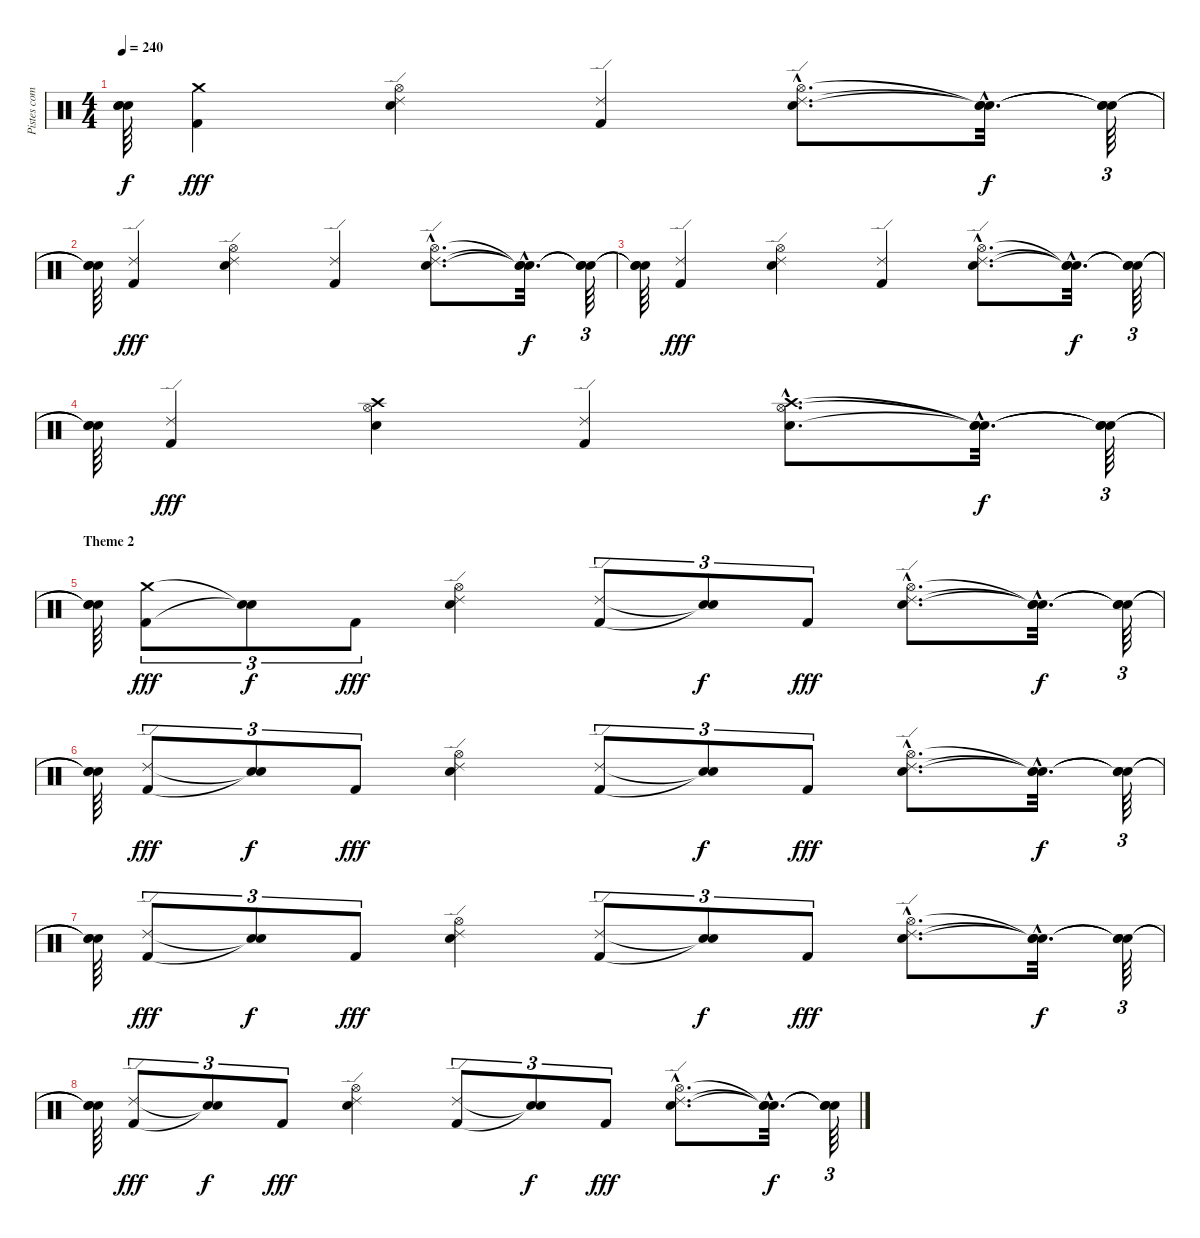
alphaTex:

\track ("Pistes combinées" "Pistes com") {instrument percussion}
\staff {score}
\articulation defaults
\ts (4 4)
\tempo 240
\clef neutral
\ks c
("Snare (hit)"{t} "Snare (hit)"{t} "Snare (hit)"{t}).64{dy f} ("Kick (hit) 2" "Crash medium (hit)").4{dy fff} ("Electric Snare (hit)" "Ride (edge) 2" "Hi-Hat (open)").4 ("Kick (hit) 2" "Ride (edge) 2").4 ("Electric Snare (hit)"{hac} "Ride (edge) 2"{hac} "Hi-Hat (open)"{hac}).8{d} ("Snare (hit)"{hac t} "Snare (hit)"{hac t} "Snare (hit)"{hac t}).32{d dy f} ("Snare (hit)"{t} "Snare (hit)"{t} "Snare (hit)"{t}).64{tu (3 2)} |
("Snare (hit)"{t} "Snare (hit)"{t} "Snare (hit)"{t}).64 ("Kick (hit) 2" "Ride (edge) 2").4{dy fff} ("Electric Snare (hit)" "Ride (edge) 2" "Hi-Hat (open)").4 ("Kick (hit) 2" "Ride (edge) 2").4 ("Electric Snare (hit)"{hac} "Ride (edge) 2"{hac} "Hi-Hat (open)"{hac}).8{d} ("Snare (hit)"{hac t} "Snare (hit)"{hac t} "Snare (hit)"{hac t}).32{d dy f} ("Snare (hit)"{t} "Snare (hit)"{t} "Snare (hit)"{t}).64{tu (3 2)} |
("Snare (hit)"{t} "Snare (hit)"{t} "Snare (hit)"{t}).64 ("Kick (hit) 2" "Ride (edge) 2").4{dy fff} ("Electric Snare (hit)" "Ride (edge) 2" "Hi-Hat (open)").4 ("Kick (hit) 2" "Ride (edge) 2").4 ("Electric Snare (hit)"{hac} "Ride (edge) 2"{hac} "Hi-Hat (open)"{hac}).8{d} ("Snare (hit)"{hac t} "Snare (hit)"{hac t} "Snare (hit)"{hac t}).32{d dy f} ("Snare (hit)"{t} "Snare (hit)"{t} "Snare (hit)"{t}).64{tu (3 2)} |
("Snare (hit)"{t} "Snare (hit)"{t} "Snare (hit)"{t}).64 ("Kick (hit) 2" "Ride (edge) 2").4{dy fff} ("Electric Snare (hit)" "Crash high (hit)" "Hi-Hat (open)").4 ("Kick (hit) 2" "Ride (edge) 2").4 ("Electric Snare (hit)"{hac} "Crash high (hit)"{hac} "Hi-Hat (open)"{hac}).8{d} ("Snare (hit)"{hac t} "Snare (hit)"{hac t} "Snare (hit)"{hac t}).32{d dy f} ("Snare (hit)"{t} "Snare (hit)"{t} "Snare (hit)"{t}).64{tu (3 2)} |
\section ("" "Theme 2")
("Snare (hit)"{t} "Snare (hit)"{t} "Snare (hit)"{t}).64 ("Kick (hit) 2" "Crash medium (hit)").8{tu (3 2) dy fff} ("Snare (hit)"{t} "Snare (hit)"{t}).8{tu (3 2) dy f} "Kick (hit) 2".8{tu (3 2) dy fff} ("Electric Snare (hit)" "Ride (edge) 2" "Hi-Hat (open)").4 ("Kick (hit) 2" "Ride (edge) 2").8{tu (3 2)} ("Snare (hit)"{t} "Snare (hit)"{t}).8{tu (3 2) dy f} "Kick (hit) 2".8{tu (3 2) dy fff} ("Electric Snare (hit)"{hac} "Ride (edge) 2"{hac} "Hi-Hat (open)"{hac}).8{d} ("Snare (hit)"{hac t} "Snare (hit)"{hac t} "Snare (hit)"{hac t}).32{d dy f} ("Snare (hit)"{t} "Snare (hit)"{t} "Snare (hit)"{t}).64{tu (3 2)} |
("Snare (hit)"{t} "Snare (hit)"{t} "Snare (hit)"{t}).64 ("Kick (hit) 2" "Ride (edge) 2").8{tu (3 2) dy fff} ("Snare (hit)"{t} "Snare (hit)"{t}).8{tu (3 2) dy f} "Kick (hit) 2".8{tu (3 2) dy fff} ("Electric Snare (hit)" "Ride (edge) 2" "Hi-Hat (open)").4 ("Kick (hit) 2" "Ride (edge) 2").8{tu (3 2)} ("Snare (hit)"{t} "Snare (hit)"{t}).8{tu (3 2) dy f} "Kick (hit) 2".8{tu (3 2) dy fff} ("Electric Snare (hit)"{hac} "Ride (edge) 2"{hac} "Hi-Hat (open)"{hac}).8{d} ("Snare (hit)"{hac t} "Snare (hit)"{hac t} "Snare (hit)"{hac t}).32{d dy f} ("Snare (hit)"{t} "Snare (hit)"{t} "Snare (hit)"{t}).64{tu (3 2)} |
("Snare (hit)"{t} "Snare (hit)"{t} "Snare (hit)"{t}).64 ("Kick (hit) 2" "Ride (edge) 2").8{tu (3 2) dy fff} ("Snare (hit)"{t} "Snare (hit)"{t}).8{tu (3 2) dy f} "Kick (hit) 2".8{tu (3 2) dy fff} ("Electric Snare (hit)" "Ride (edge) 2" "Hi-Hat (open)").4 ("Kick (hit) 2" "Ride (edge) 2").8{tu (3 2)} ("Snare (hit)"{t} "Snare (hit)"{t}).8{tu (3 2) dy f} "Kick (hit) 2".8{tu (3 2) dy fff} ("Electric Snare (hit)"{hac} "Ride (edge) 2"{hac} "Hi-Hat (open)"{hac}).8{d} ("Snare (hit)"{hac t} "Snare (hit)"{hac t} "Snare (hit)"{hac t}).32{d dy f} ("Snare (hit)"{t} "Snare (hit)"{t} "Snare (hit)"{t}).64{tu (3 2)} |
("Snare (hit)"{t} "Snare (hit)"{t} "Snare (hit)"{t}).64 ("Kick (hit) 2" "Ride (edge) 2").8{tu (3 2) dy fff} ("Snare (hit)"{t} "Snare (hit)"{t}).8{tu (3 2) dy f} "Kick (hit) 2".8{tu (3 2) dy fff} ("Electric Snare (hit)" "Ride (edge) 2" "Hi-Hat (open)").4 ("Kick (hit) 2" "Ride (edge) 2").8{tu (3 2)} ("Snare (hit)"{t} "Snare (hit)"{t}).8{tu (3 2) dy f} "Kick (hit) 2".8{tu (3 2) dy fff} ("Electric Snare (hit)"{hac} "Ride (edge) 2"{hac} "Hi-Hat (open)"{hac}).8{d} ("Snare (hit)"{hac t} "Snare (hit)"{hac t} "Snare (hit)"{hac t}).32{d dy f} ("Snare (hit)"{t} "Snare (hit)"{t} "Snare (hit)"{t}).64{tu (3 2)}
